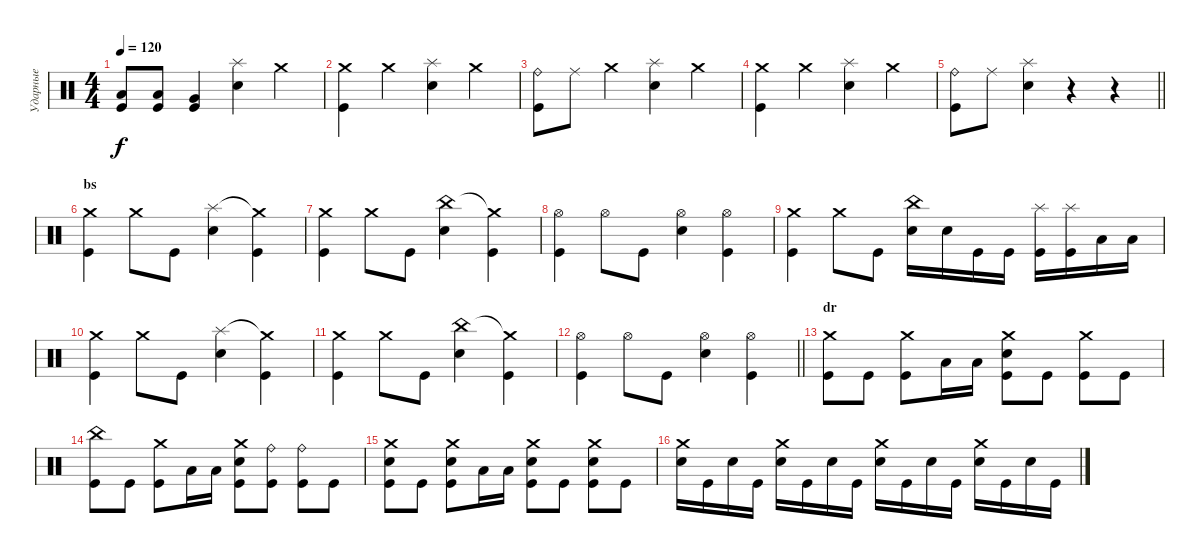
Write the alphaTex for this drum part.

\track ("Ударные" "Ударные") {instrument percussion}
\staff {score}
\articulation defaults
\ts (4 4)
\tempo 120
\clef neutral
\ks c
("Low Tom (hit)" "Kick (hit)").8{dy f} ("Low Tom (hit)" "Kick (hit)").8 ("Very Low Tom (hit)" "Kick (hit)").4 ("Splash (hit)" "Electric Snare (hit)").4 "Crash medium (hit)".4 |
("Crash medium (hit)" "Kick (hit)").4 "Crash medium (hit)".4 ("Splash (hit)" "Electric Snare (hit)").4 "Crash medium (hit)".4 |
("Ride (bell)" "Kick (hit)").8 "Ride (middle)".8 "Crash medium (hit)".4 ("Splash (hit)" "Electric Snare (hit)").4 "Crash medium (hit)".4 |
("Crash medium (hit)" "Kick (hit)").4 "Crash medium (hit)".4 ("Splash (hit)" "Electric Snare (hit)").4 "Crash medium (hit)".4 |
\barLineRight lightlight
("Ride (bell)" "Kick (hit)").8 "Ride (middle)".8 ("Splash (hit)" "Electric Snare (hit)").4 r.4 r.4 |
\section ("" "bs")
("Crash medium (hit)" "Kick (hit)").4 "Crash medium (hit)".8 "Kick (hit)".8 ("Splash (hit)" "Electric Snare (hit)").4 ("Crash medium (hit)"{t} "Kick (hit)").4 |
("Crash medium (hit)" "Kick (hit)").4 "Crash medium (hit)".8 "Kick (hit)".8 ("China (hit)" "Electric Snare (hit)").4 ("Crash medium (hit)"{t} "Kick (hit)").4 |
("Hi-Hat (open)" "Kick (hit)").4 "Hi-Hat (open)".8 "Kick (hit)".8 ("Hi-Hat (open)" "Electric Snare (hit)").4 ("Hi-Hat (open)" "Kick (hit)").4 |
("Crash medium (hit)" "Kick (hit)").4 "Crash medium (hit)".8 "Kick (hit)".8 ("China (hit)" "Electric Snare (hit)").16 "Electric Snare (hit)".16 "Kick (hit)".16 "Kick (hit)".16 ("Splash (hit)" "Kick (hit)").16 ("Splash (hit)" "Kick (hit)").16 "Low Floor Tom (hit)".16 "Low Floor Tom (hit)".16 |
("Crash medium (hit)" "Kick (hit)").4 "Crash medium (hit)".8 "Kick (hit)".8 ("Splash (hit)" "Electric Snare (hit)").4 ("Crash medium (hit)"{t} "Kick (hit)").4 |
("Crash medium (hit)" "Kick (hit)").4 "Crash medium (hit)".8 "Kick (hit)".8 ("China (hit)" "Electric Snare (hit)").4 ("Crash medium (hit)"{t} "Kick (hit)").4 |
\barLineRight lightlight
("Hi-Hat (open)" "Kick (hit)").4 "Hi-Hat (open)".8 "Kick (hit)".8 ("Hi-Hat (open)" "Electric Snare (hit)").4 ("Hi-Hat (open)" "Kick (hit)").4 |
\section ("" "dr")
("Crash medium (hit)" "Kick (hit)").8 "Kick (hit)".8 ("Crash medium (hit)" "Kick (hit)").8 "Low Tom (hit)".16 "Low Tom (hit)".16 ("Crash medium (hit)" "Electric Snare (hit)" "Kick (hit)").8 "Kick (hit)".8 ("Crash medium (hit)" "Kick (hit)").8 "Kick (hit)".8 |
("China (hit)" "Kick (hit)").8 "Kick (hit)".8 ("Crash medium (hit)" "Kick (hit)").8 "Low Tom (hit)".16 "Low Tom (hit)".16 ("Crash medium (hit)" "Electric Snare (hit)" "Kick (hit)").8 ("Ride (bell)" "Kick (hit)").8 ("Ride (bell)" "Kick (hit)").8 "Kick (hit)".8 |
("Crash medium (hit)" "Electric Snare (hit)" "Kick (hit)").8 "Kick (hit)".8 ("Crash medium (hit)" "Electric Snare (hit)" "Kick (hit)").8 "Low Tom (hit)".16 "Low Tom (hit)".16 ("Crash medium (hit)" "Electric Snare (hit)" "Kick (hit)").8 "Kick (hit)".8 ("Crash medium (hit)" "Electric Snare (hit)" "Kick (hit)").8 "Kick (hit)".8 |
("Crash medium (hit)" "Electric Snare (hit)").16 "Kick (hit)".16 "Electric Snare (hit)".16 "Kick (hit)".16 ("Crash medium (hit)" "Electric Snare (hit)").16 "Kick (hit)".16 "Electric Snare (hit)".16 "Kick (hit)".16 ("Crash medium (hit)" "Electric Snare (hit)").16 "Kick (hit)".16 "Electric Snare (hit)".16 "Kick (hit)".16 ("Crash medium (hit)" "Electric Snare (hit)").16 "Kick (hit)".16 "Electric Snare (hit)".16 "Kick (hit)".16
